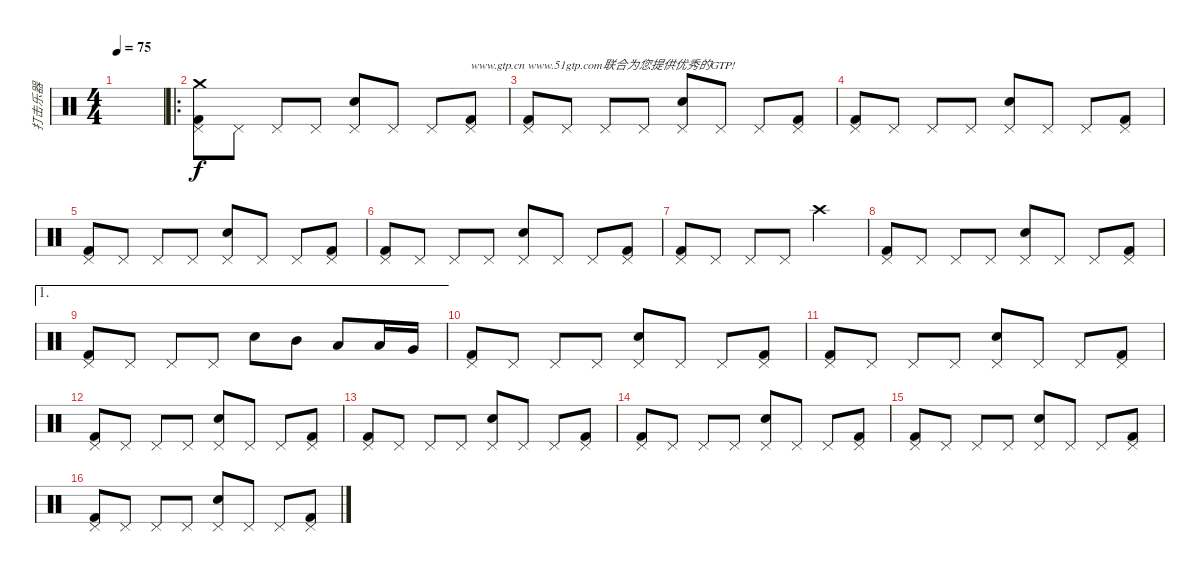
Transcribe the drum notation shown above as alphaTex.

\track ("打击乐器" "打击乐器") {instrument percussion}
\staff {score}
\articulation defaults
\ts (4 4)
\tempo 75
\clef neutral
\ks c
|
\ro
("Crash medium (hit)" "Pedal Hi-Hat (hit)" "Kick (hit) 2").8 "Pedal Hi-Hat (hit)".8 "Pedal Hi-Hat (hit)".8 "Pedal Hi-Hat (hit)".8 ("Pedal Hi-Hat (hit)" "Electric Snare (hit)").8 "Pedal Hi-Hat (hit)".8 "Pedal Hi-Hat (hit)".8 ("Pedal Hi-Hat (hit)" "Kick (hit) 2").8{txt "www.gtp.cn www.51gtp.com联合为您提供优秀的GTP!"} |
("Pedal Hi-Hat (hit)" "Kick (hit) 2").8 "Pedal Hi-Hat (hit)".8 "Pedal Hi-Hat (hit)".8 "Pedal Hi-Hat (hit)".8 ("Pedal Hi-Hat (hit)" "Electric Snare (hit)").8 "Pedal Hi-Hat (hit)".8 "Pedal Hi-Hat (hit)".8 ("Pedal Hi-Hat (hit)" "Kick (hit) 2").8 |
("Pedal Hi-Hat (hit)" "Kick (hit) 2").8 "Pedal Hi-Hat (hit)".8 "Pedal Hi-Hat (hit)".8 "Pedal Hi-Hat (hit)".8 ("Pedal Hi-Hat (hit)" "Electric Snare (hit)").8 "Pedal Hi-Hat (hit)".8 "Pedal Hi-Hat (hit)".8 ("Pedal Hi-Hat (hit)" "Kick (hit) 2").8 |
("Pedal Hi-Hat (hit)" "Kick (hit) 2").8 "Pedal Hi-Hat (hit)".8 "Pedal Hi-Hat (hit)".8 "Pedal Hi-Hat (hit)".8 ("Pedal Hi-Hat (hit)" "Electric Snare (hit)").8 "Pedal Hi-Hat (hit)".8 "Pedal Hi-Hat (hit)".8 ("Pedal Hi-Hat (hit)" "Kick (hit) 2").8 |
("Pedal Hi-Hat (hit)" "Kick (hit) 2").8 "Pedal Hi-Hat (hit)".8 "Pedal Hi-Hat (hit)".8 "Pedal Hi-Hat (hit)".8 ("Pedal Hi-Hat (hit)" "Electric Snare (hit)").8 "Pedal Hi-Hat (hit)".8 "Pedal Hi-Hat (hit)".8 ("Pedal Hi-Hat (hit)" "Kick (hit) 2").8 |
("Pedal Hi-Hat (hit)" "Kick (hit) 2").8 "Pedal Hi-Hat (hit)".8 "Pedal Hi-Hat (hit)".8 "Pedal Hi-Hat (hit)".8 "Crash high (hit)".2 |
("Pedal Hi-Hat (hit)" "Kick (hit) 2").8 "Pedal Hi-Hat (hit)".8 "Pedal Hi-Hat (hit)".8 "Pedal Hi-Hat (hit)".8 ("Pedal Hi-Hat (hit)" "Electric Snare (hit)").8 "Pedal Hi-Hat (hit)".8 "Pedal Hi-Hat (hit)".8 ("Pedal Hi-Hat (hit)" "Kick (hit) 2").8 |
\ae 1
("Pedal Hi-Hat (hit)" "Kick (hit) 2").8 "Pedal Hi-Hat (hit)".8 "Pedal Hi-Hat (hit)".8 "Pedal Hi-Hat (hit)".8 "Electric Snare (hit)".8 "Mid Tom (hit)".8 "Low Tom (hit)".8 "Low Tom (hit)".16 "Very Low Tom (hit)".16 |
("Pedal Hi-Hat (hit)" "Kick (hit) 2").8 "Pedal Hi-Hat (hit)".8 "Pedal Hi-Hat (hit)".8 "Pedal Hi-Hat (hit)".8 ("Pedal Hi-Hat (hit)" "Electric Snare (hit)").8 "Pedal Hi-Hat (hit)".8 "Pedal Hi-Hat (hit)".8 ("Pedal Hi-Hat (hit)" "Kick (hit) 2").8 |
("Pedal Hi-Hat (hit)" "Kick (hit) 2").8 "Pedal Hi-Hat (hit)".8 "Pedal Hi-Hat (hit)".8 "Pedal Hi-Hat (hit)".8 ("Pedal Hi-Hat (hit)" "Electric Snare (hit)").8 "Pedal Hi-Hat (hit)".8 "Pedal Hi-Hat (hit)".8 ("Pedal Hi-Hat (hit)" "Kick (hit) 2").8 |
("Pedal Hi-Hat (hit)" "Kick (hit) 2").8 "Pedal Hi-Hat (hit)".8 "Pedal Hi-Hat (hit)".8 "Pedal Hi-Hat (hit)".8 ("Pedal Hi-Hat (hit)" "Electric Snare (hit)").8 "Pedal Hi-Hat (hit)".8 "Pedal Hi-Hat (hit)".8 ("Pedal Hi-Hat (hit)" "Kick (hit) 2").8 |
("Pedal Hi-Hat (hit)" "Kick (hit) 2").8 "Pedal Hi-Hat (hit)".8 "Pedal Hi-Hat (hit)".8 "Pedal Hi-Hat (hit)".8 ("Pedal Hi-Hat (hit)" "Electric Snare (hit)").8 "Pedal Hi-Hat (hit)".8 "Pedal Hi-Hat (hit)".8 ("Pedal Hi-Hat (hit)" "Kick (hit) 2").8 |
("Pedal Hi-Hat (hit)" "Kick (hit) 2").8 "Pedal Hi-Hat (hit)".8 "Pedal Hi-Hat (hit)".8 "Pedal Hi-Hat (hit)".8 ("Pedal Hi-Hat (hit)" "Electric Snare (hit)").8 "Pedal Hi-Hat (hit)".8 "Pedal Hi-Hat (hit)".8 ("Pedal Hi-Hat (hit)" "Kick (hit) 2").8 |
("Pedal Hi-Hat (hit)" "Kick (hit) 2").8 "Pedal Hi-Hat (hit)".8 "Pedal Hi-Hat (hit)".8 "Pedal Hi-Hat (hit)".8 ("Pedal Hi-Hat (hit)" "Electric Snare (hit)").8 "Pedal Hi-Hat (hit)".8 "Pedal Hi-Hat (hit)".8 ("Pedal Hi-Hat (hit)" "Kick (hit) 2").8 |
("Pedal Hi-Hat (hit)" "Kick (hit) 2").8 "Pedal Hi-Hat (hit)".8 "Pedal Hi-Hat (hit)".8 "Pedal Hi-Hat (hit)".8 ("Pedal Hi-Hat (hit)" "Electric Snare (hit)").8 "Pedal Hi-Hat (hit)".8 "Pedal Hi-Hat (hit)".8 ("Pedal Hi-Hat (hit)" "Kick (hit) 2").8
